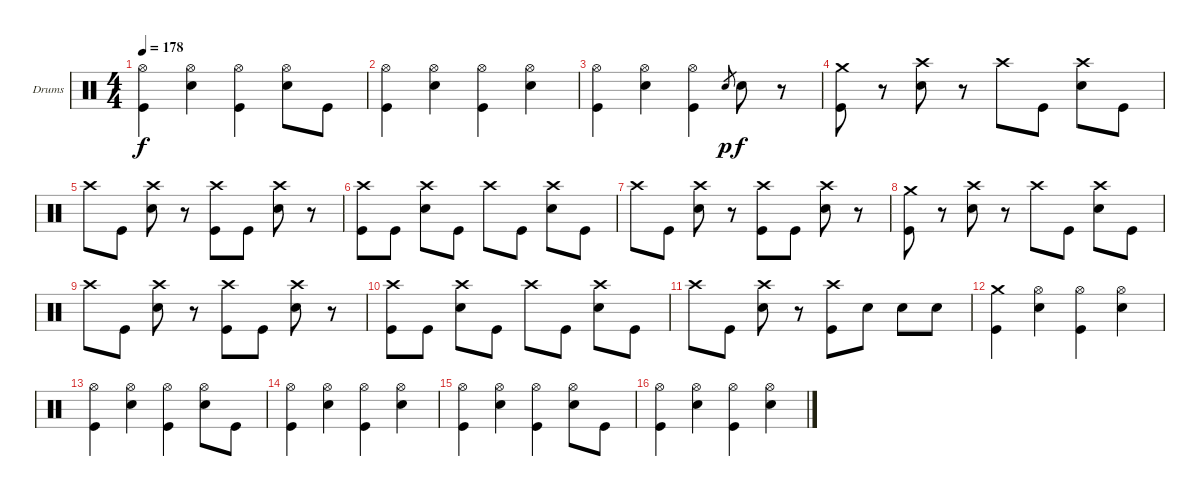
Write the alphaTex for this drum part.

\bracketExtendMode groupsimilarinstruments
\firstSystemTrackNameOrientation horizontal
\otherSystemsTrackNameOrientation horizontal
\track ("Drumkit" "Drums") {instrument percussion}
\staff {score}
\articulation defaults
\ts (4 4)
\tempo 178
\clef neutral
\ks c
("Hi-Hat (open)" "Kick (hit)").4{dy f} ("Hi-Hat (open)" "Snare (hit) 2").4 ("Hi-Hat (open)" "Kick (hit)").4 ("Hi-Hat (open)" "Snare (hit) 2").8 "Kick (hit)".8 |
("Hi-Hat (open)" "Kick (hit)").4 ("Hi-Hat (open)" "Snare (hit) 2").4 ("Hi-Hat (open)" "Kick (hit)").4 ("Hi-Hat (open)" "Snare (hit) 2").4 |
("Hi-Hat (open)" "Kick (hit)").4 ("Hi-Hat (open)" "Snare (hit) 2").4 ("Hi-Hat (open)" "Kick (hit)").4 "Snare (hit) 2".8{gr dy p} "Snare (hit) 2".8{dy f} r.8 |
("Crash medium (hit)" "Kick (hit)").8 r.8 ("Crash high (hit)" "Snare (hit) 2").8 r.8 "Crash high (hit)".8 "Kick (hit)".8 ("Crash high (hit)" "Snare (hit) 2").8 "Kick (hit)".8 |
"Crash high (hit)".8 "Kick (hit)".8 ("Crash high (hit)" "Snare (hit) 2").8 r.8 ("Crash high (hit)" "Kick (hit)").8 "Kick (hit)".8 ("Crash high (hit)" "Snare (hit) 2").8 r.8 |
("Crash high (hit)" "Kick (hit)").8 "Kick (hit)".8 ("Crash high (hit)" "Snare (hit) 2").8 "Kick (hit)".8 "Crash high (hit)".8 "Kick (hit)".8 ("Crash high (hit)" "Snare (hit) 2").8 "Kick (hit)".8 |
"Crash high (hit)".8 "Kick (hit)".8 ("Crash high (hit)" "Snare (hit) 2").8 r.8 ("Crash high (hit)" "Kick (hit)").8 "Kick (hit)".8 ("Crash high (hit)" "Snare (hit) 2").8 r.8 |
("Crash medium (hit)" "Kick (hit)").8 r.8 ("Crash high (hit)" "Snare (hit) 2").8 r.8 "Crash high (hit)".8 "Kick (hit)".8 ("Crash high (hit)" "Snare (hit) 2").8 "Kick (hit)".8 |
"Crash high (hit)".8 "Kick (hit)".8 ("Crash high (hit)" "Snare (hit) 2").8 r.8 ("Crash high (hit)" "Kick (hit)").8 "Kick (hit)".8 ("Crash high (hit)" "Snare (hit) 2").8 r.8 |
("Crash high (hit)" "Kick (hit)").8 "Kick (hit)".8 ("Crash high (hit)" "Snare (hit) 2").8 "Kick (hit)".8 "Crash high (hit)".8 "Kick (hit)".8 ("Crash high (hit)" "Snare (hit) 2").8 "Kick (hit)".8 |
"Crash high (hit)".8 "Kick (hit)".8 ("Crash high (hit)" "Snare (hit) 2").8 r.8 ("Crash high (hit)" "Kick (hit)").8 "Snare (hit) 2".8 "Snare (hit) 2".8 "Snare (hit) 2".8 |
("Crash medium (hit)" "Kick (hit)").4 ("Hi-Hat (open)" "Snare (hit) 2").4 ("Hi-Hat (open)" "Kick (hit)").4 ("Hi-Hat (open)" "Snare (hit) 2").4 |
("Hi-Hat (open)" "Kick (hit)").4 ("Hi-Hat (open)" "Snare (hit) 2").4 ("Hi-Hat (open)" "Kick (hit)").4 ("Hi-Hat (open)" "Snare (hit) 2").8 "Kick (hit)".8 |
("Hi-Hat (open)" "Kick (hit)").4 ("Hi-Hat (open)" "Snare (hit) 2").4 ("Hi-Hat (open)" "Kick (hit)").4 ("Hi-Hat (open)" "Snare (hit) 2").4 |
("Hi-Hat (open)" "Kick (hit)").4 ("Hi-Hat (open)" "Snare (hit) 2").4 ("Hi-Hat (open)" "Kick (hit)").4 ("Hi-Hat (open)" "Snare (hit) 2").8 "Kick (hit)".8 |
("Hi-Hat (open)" "Kick (hit)").4 ("Hi-Hat (open)" "Snare (hit) 2").4 ("Hi-Hat (open)" "Kick (hit)").4 ("Hi-Hat (open)" "Snare (hit) 2").4
